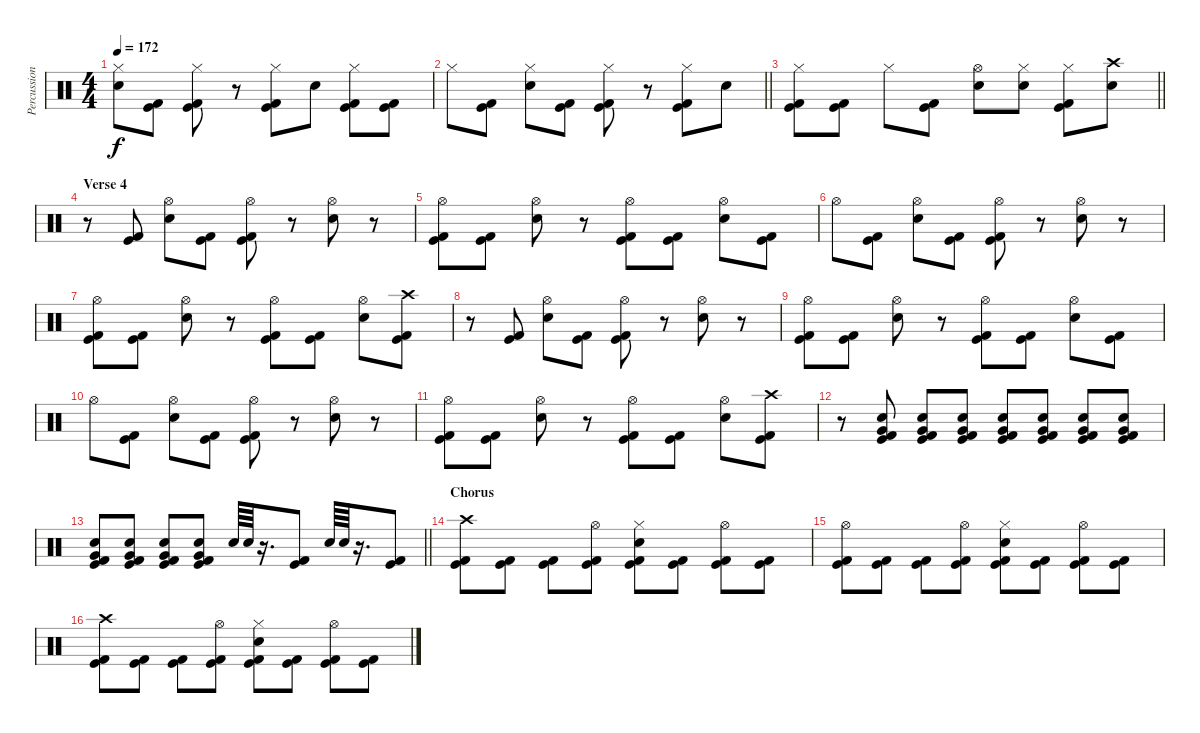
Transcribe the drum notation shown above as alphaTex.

\track ("Percussion" "Percussion") {instrument percussion}
\staff {score}
\articulation defaults
\ts (4 4)
\tempo 172
\clef neutral
\ks c
("Hi-Hat (closed)" "Snare (hit) 2").8{dy f} ("Kick (hit)" "Kick (hit) 2").8 ("Hi-Hat (closed)" "Kick (hit)" "Kick (hit) 2").8 r.8 ("Hi-Hat (closed)" "Kick (hit)" "Kick (hit) 2").8 "Snare (hit) 2".8 ("Hi-Hat (closed)" "Kick (hit)" "Kick (hit) 2").8 ("Kick (hit)" "Kick (hit) 2").8 |
\barLineRight lightlight "Hi-Hat (closed)".8
("Kick (hit)" "Kick (hit) 2").8 ("Hi-Hat (closed)" "Snare (hit) 2").8 ("Kick (hit)" "Kick (hit) 2").8 ("Hi-Hat (closed)" "Kick (hit)" "Kick (hit) 2").8 r.8 ("Hi-Hat (closed)" "Kick (hit)" "Kick (hit) 2").8 "Snare (hit) 2".8 |
\barLineRight lightlight
("Hi-Hat (closed)" "Kick (hit)" "Kick (hit) 2").8 ("Kick (hit)" "Kick (hit) 2").8 "Hi-Hat (closed)".8 ("Kick (hit)" "Kick (hit) 2").8 ("Hi-Hat (open)" "Snare (hit) 2").8 ("Hi-Hat (closed)" "Snare (hit) 2").8 ("Hi-Hat (closed)" "Kick (hit)" "Kick (hit) 2").8 ("Crash high (hit)" "Snare (hit) 2").8 |
\section ("" "Verse 4")
r.8 ("Kick (hit)" "Kick (hit) 2").8 ("Hi-Hat (open)" "Snare (hit) 2").8 ("Kick (hit)" "Kick (hit) 2").8 ("Hi-Hat (open)" "Kick (hit)" "Kick (hit) 2").8 r.8 ("Hi-Hat (open)" "Snare (hit) 2").8 r.8 |
("Hi-Hat (open)" "Kick (hit)" "Kick (hit) 2").8 ("Kick (hit)" "Kick (hit) 2").8 ("Hi-Hat (open)" "Snare (hit) 2").8 r.8 ("Hi-Hat (open)" "Kick (hit)" "Kick (hit) 2").8 ("Kick (hit)" "Kick (hit) 2").8 ("Hi-Hat (open)" "Snare (hit) 2").8 ("Kick (hit)" "Kick (hit) 2").8 |
"Hi-Hat (open)".8 ("Kick (hit)" "Kick (hit) 2").8 ("Hi-Hat (open)" "Snare (hit) 2").8 ("Kick (hit)" "Kick (hit) 2").8 ("Hi-Hat (open)" "Kick (hit)" "Kick (hit) 2").8 r.8 ("Hi-Hat (open)" "Snare (hit) 2").8 r.8 |
("Hi-Hat (open)" "Kick (hit)" "Kick (hit) 2").8 ("Kick (hit)" "Kick (hit) 2").8 ("Hi-Hat (open)" "Snare (hit) 2").8 r.8 ("Hi-Hat (open)" "Kick (hit)" "Kick (hit) 2").8 ("Kick (hit)" "Kick (hit) 2").8 ("Hi-Hat (open)" "Snare (hit) 2").8 ("Crash high (hit)" "Kick (hit)" "Kick (hit) 2").8 |
r.8 ("Kick (hit)" "Kick (hit) 2").8 ("Hi-Hat (open)" "Snare (hit) 2").8 ("Kick (hit)" "Kick (hit) 2").8 ("Hi-Hat (open)" "Kick (hit)" "Kick (hit) 2").8 r.8 ("Hi-Hat (open)" "Snare (hit) 2").8 r.8 |
("Hi-Hat (open)" "Kick (hit)" "Kick (hit) 2").8 ("Kick (hit)" "Kick (hit) 2").8 ("Hi-Hat (open)" "Snare (hit) 2").8 r.8 ("Hi-Hat (open)" "Kick (hit)" "Kick (hit) 2").8 ("Kick (hit)" "Kick (hit) 2").8 ("Hi-Hat (open)" "Snare (hit) 2").8 ("Kick (hit)" "Kick (hit) 2").8 |
"Hi-Hat (open)".8 ("Kick (hit)" "Kick (hit) 2").8 ("Hi-Hat (open)" "Snare (hit) 2").8 ("Kick (hit)" "Kick (hit) 2").8 ("Hi-Hat (open)" "Kick (hit)" "Kick (hit) 2").8 r.8 ("Hi-Hat (open)" "Snare (hit) 2").8 r.8 |
("Hi-Hat (open)" "Kick (hit)" "Kick (hit) 2").8 ("Kick (hit)" "Kick (hit) 2").8 ("Hi-Hat (open)" "Snare (hit) 2").8 r.8 ("Hi-Hat (open)" "Kick (hit)" "Kick (hit) 2").8 ("Kick (hit)" "Kick (hit) 2").8 ("Hi-Hat (open)" "Snare (hit) 2").8 ("Crash high (hit)" "Kick (hit)" "Kick (hit) 2").8 |
r.8 ("Very Low Tom (hit)" "Snare (hit) 2" "Kick (hit)" "Kick (hit) 2").8 ("Very Low Tom (hit)" "Snare (hit) 2" "Kick (hit)" "Kick (hit) 2").8 ("Very Low Tom (hit)" "Snare (hit) 2" "Kick (hit)" "Kick (hit) 2").8 ("Very Low Tom (hit)" "Snare (hit) 2" "Kick (hit)" "Kick (hit) 2").8 ("Very Low Tom (hit)" "Snare (hit) 2" "Kick (hit)" "Kick (hit) 2").8 ("Very Low Tom (hit)" "Snare (hit) 2" "Kick (hit)" "Kick (hit) 2").8 ("Very Low Tom (hit)" "Snare (hit) 2" "Kick (hit)" "Kick (hit) 2").8 |
\barLineRight lightlight
("Very Low Tom (hit)" "Snare (hit) 2" "Kick (hit)" "Kick (hit) 2").8 ("Very Low Tom (hit)" "Snare (hit) 2" "Kick (hit)" "Kick (hit) 2").8 ("Very Low Tom (hit)" "Snare (hit) 2" "Kick (hit)" "Kick (hit) 2").8 ("Very Low Tom (hit)" "Snare (hit) 2" "Kick (hit)" "Kick (hit) 2").8 "Snare (hit) 2".64 "Snare (hit) 2".64 r.16{d} ("Kick (hit)" "Kick (hit) 2").8 "Snare (hit) 2".64 "Snare (hit) 2".64 r.16{d} ("Kick (hit)" "Kick (hit) 2").8 |
\section ("" "Chorus")
("Crash high (hit)" "Kick (hit)" "Kick (hit) 2").8 ("Kick (hit)" "Kick (hit) 2").8 ("Kick (hit)" "Kick (hit) 2").8 ("Hi-Hat (open)" "Kick (hit)" "Kick (hit) 2").8 ("Hi-Hat (closed)" "Snare (hit) 2" "Kick (hit)" "Kick (hit) 2").8 ("Kick (hit)" "Kick (hit) 2").8 ("Hi-Hat (open)" "Kick (hit)" "Kick (hit) 2").8 ("Kick (hit)" "Kick (hit) 2").8 |
("Hi-Hat (open)" "Kick (hit)" "Kick (hit) 2").8 ("Kick (hit)" "Kick (hit) 2").8 ("Kick (hit)" "Kick (hit) 2").8 ("Hi-Hat (open)" "Kick (hit)" "Kick (hit) 2").8 ("Hi-Hat (closed)" "Snare (hit) 2" "Kick (hit)" "Kick (hit) 2").8 ("Kick (hit)" "Kick (hit) 2").8 ("Hi-Hat (open)" "Kick (hit)" "Kick (hit) 2").8 ("Kick (hit)" "Kick (hit) 2").8 |
("Crash high (hit)" "Kick (hit)" "Kick (hit) 2").8 ("Kick (hit)" "Kick (hit) 2").8 ("Kick (hit)" "Kick (hit) 2").8 ("Hi-Hat (open)" "Kick (hit)" "Kick (hit) 2").8 ("Hi-Hat (closed)" "Snare (hit) 2" "Kick (hit)" "Kick (hit) 2").8 ("Kick (hit)" "Kick (hit) 2").8 ("Hi-Hat (open)" "Kick (hit)" "Kick (hit) 2").8 ("Kick (hit)" "Kick (hit) 2").8
